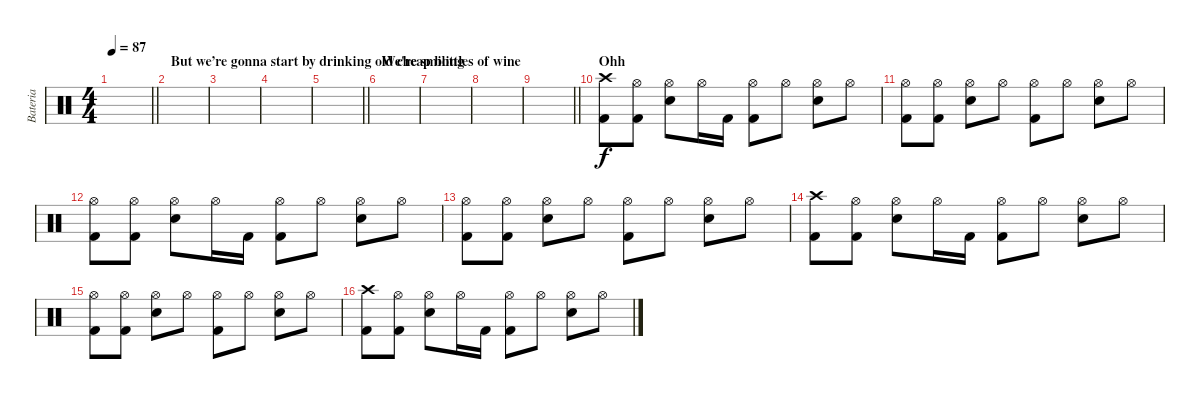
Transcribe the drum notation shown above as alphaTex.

\track ("Bateria" "Bateria") {instrument percussion}
\staff {score}
\articulation defaults
\ts (4 4)
\tempo 87
\clef neutral
\barLineRight lightlight
\ks c
|
\section ("" "But we’re gonna start by drinking old cheap bottles of wine")
|
|
|
\barLineRight lightlight
|
\section ("" "We're smiling")
|
|
|
\barLineRight lightlight
|
\section ("" "Ohh")
("Crash high (hit)" "Kick (hit) 2").8 ("Hi-Hat (open)" "Kick (hit) 2").8 ("Hi-Hat (open)" "Snare (hit) 2").8 "Hi-Hat (open)".16 "Kick (hit) 2".16 ("Hi-Hat (open)" "Kick (hit) 2").8 "Hi-Hat (open)".8 ("Hi-Hat (open)" "Snare (hit) 2").8 "Hi-Hat (open)".8 |
("Hi-Hat (open)" "Kick (hit) 2").8 ("Hi-Hat (open)" "Kick (hit) 2").8 ("Hi-Hat (open)" "Snare (hit) 2").8 "Hi-Hat (open)".8 ("Hi-Hat (open)" "Kick (hit) 2").8 "Hi-Hat (open)".8 ("Hi-Hat (open)" "Snare (hit) 2").8 "Hi-Hat (open)".8 |
("Hi-Hat (open)" "Kick (hit) 2").8 ("Hi-Hat (open)" "Kick (hit) 2").8 ("Hi-Hat (open)" "Snare (hit) 2").8 "Hi-Hat (open)".16 "Kick (hit) 2".16 ("Hi-Hat (open)" "Kick (hit) 2").8 "Hi-Hat (open)".8 ("Hi-Hat (open)" "Snare (hit) 2").8 "Hi-Hat (open)".8 |
("Hi-Hat (open)" "Kick (hit) 2").8 ("Hi-Hat (open)" "Kick (hit) 2").8 ("Hi-Hat (open)" "Snare (hit) 2").8 "Hi-Hat (open)".8 ("Hi-Hat (open)" "Kick (hit) 2").8 "Hi-Hat (open)".8 ("Hi-Hat (open)" "Snare (hit) 2").8 "Hi-Hat (open)".8 |
("Crash high (hit)" "Kick (hit) 2").8 ("Hi-Hat (open)" "Kick (hit) 2").8 ("Hi-Hat (open)" "Snare (hit) 2").8 "Hi-Hat (open)".16 "Kick (hit) 2".16 ("Hi-Hat (open)" "Kick (hit) 2").8 "Hi-Hat (open)".8 ("Hi-Hat (open)" "Snare (hit) 2").8 "Hi-Hat (open)".8 |
("Hi-Hat (open)" "Kick (hit) 2").8 ("Hi-Hat (open)" "Kick (hit) 2").8 ("Hi-Hat (open)" "Snare (hit) 2").8 "Hi-Hat (open)".8 ("Hi-Hat (open)" "Kick (hit) 2").8 "Hi-Hat (open)".8 ("Hi-Hat (open)" "Snare (hit) 2").8 "Hi-Hat (open)".8 |
("Crash high (hit)" "Kick (hit) 2").8 ("Hi-Hat (open)" "Kick (hit) 2").8 ("Hi-Hat (open)" "Snare (hit) 2").8 "Hi-Hat (open)".16 "Kick (hit) 2".16 ("Hi-Hat (open)" "Kick (hit) 2").8 "Hi-Hat (open)".8 ("Hi-Hat (open)" "Snare (hit) 2").8 "Hi-Hat (open)".8
